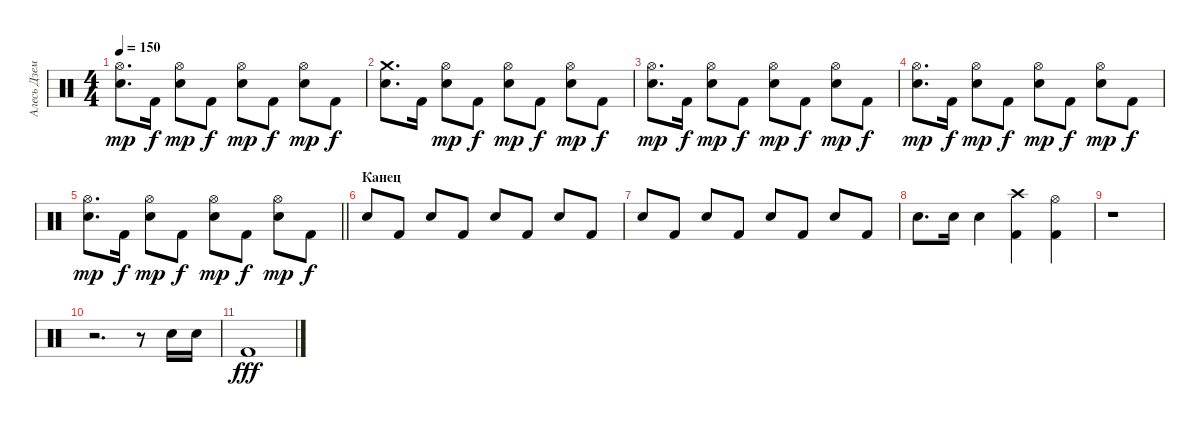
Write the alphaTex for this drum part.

\track ("Алесь Дземідовіч" "Алесь Дзем") {instrument percussion}
\staff {score}
\articulation defaults
\ts (4 4)
\tempo 150
\clef neutral
\ks c
("Hi-Hat (open)" "Electric Snare (hit)").8{d dy mp} "Kick (hit) 2".16{dy f} ("Hi-Hat (open)" "Electric Snare (hit)").8{dy mp} "Kick (hit) 2".8{dy f} ("Hi-Hat (open)" "Electric Snare (hit)").8{dy mp} "Kick (hit) 2".8{dy f} ("Hi-Hat (open)" "Electric Snare (hit)").8{dy mp} "Kick (hit) 2".8{dy f} |
("Crash medium (hit)" "Electric Snare (hit)").8{d} "Kick (hit) 2".16 ("Hi-Hat (open)" "Electric Snare (hit)").8{dy mp} "Kick (hit) 2".8{dy f} ("Hi-Hat (open)" "Electric Snare (hit)").8{dy mp} "Kick (hit) 2".8{dy f} ("Hi-Hat (open)" "Electric Snare (hit)").8{dy mp} "Kick (hit) 2".8{dy f} |
("Hi-Hat (open)" "Electric Snare (hit)").8{d dy mp} "Kick (hit) 2".16{dy f} ("Hi-Hat (open)" "Electric Snare (hit)").8{dy mp} "Kick (hit) 2".8{dy f} ("Hi-Hat (open)" "Electric Snare (hit)").8{dy mp} "Kick (hit) 2".8{dy f} ("Hi-Hat (open)" "Electric Snare (hit)").8{dy mp} "Kick (hit) 2".8{dy f} |
("Hi-Hat (open)" "Electric Snare (hit)").8{d dy mp} "Kick (hit) 2".16{dy f} ("Hi-Hat (open)" "Electric Snare (hit)").8{dy mp} "Kick (hit) 2".8{dy f} ("Hi-Hat (open)" "Electric Snare (hit)").8{dy mp} "Kick (hit) 2".8{dy f} ("Hi-Hat (open)" "Electric Snare (hit)").8{dy mp} "Kick (hit) 2".8{dy f} |
\barLineRight lightlight
("Hi-Hat (open)" "Electric Snare (hit)").8{d dy mp} "Kick (hit) 2".16{dy f} ("Hi-Hat (open)" "Electric Snare (hit)").8{dy mp} "Kick (hit) 2".8{dy f} ("Hi-Hat (open)" "Electric Snare (hit)").8{dy mp} "Kick (hit) 2".8{dy f} ("Hi-Hat (open)" "Electric Snare (hit)").8{dy mp} "Kick (hit) 2".8{dy f} |
\section ("" "Канец")
"Electric Snare (hit)".8 "Kick (hit) 2".8 "Electric Snare (hit)".8 "Kick (hit) 2".8 "Electric Snare (hit)".8 "Kick (hit) 2".8 "Electric Snare (hit)".8 "Kick (hit) 2".8 |
"Electric Snare (hit)".8 "Kick (hit) 2".8 "Electric Snare (hit)".8 "Kick (hit) 2".8 "Electric Snare (hit)".8 "Kick (hit) 2".8 "Electric Snare (hit)".8 "Kick (hit) 2".8 |
"Electric Snare (hit)".8{d} "Electric Snare (hit)".16 "Electric Snare (hit)".4 ("Crash high (hit)" "Kick (hit) 2").4 ("Hi-Hat (open)" "Kick (hit) 2").4 |
r.1 |
r.2{d} r.8 "Electric Snare (hit)".16 "Electric Snare (hit)".16 |
"Kick (hit) 2".1{dy fff}
